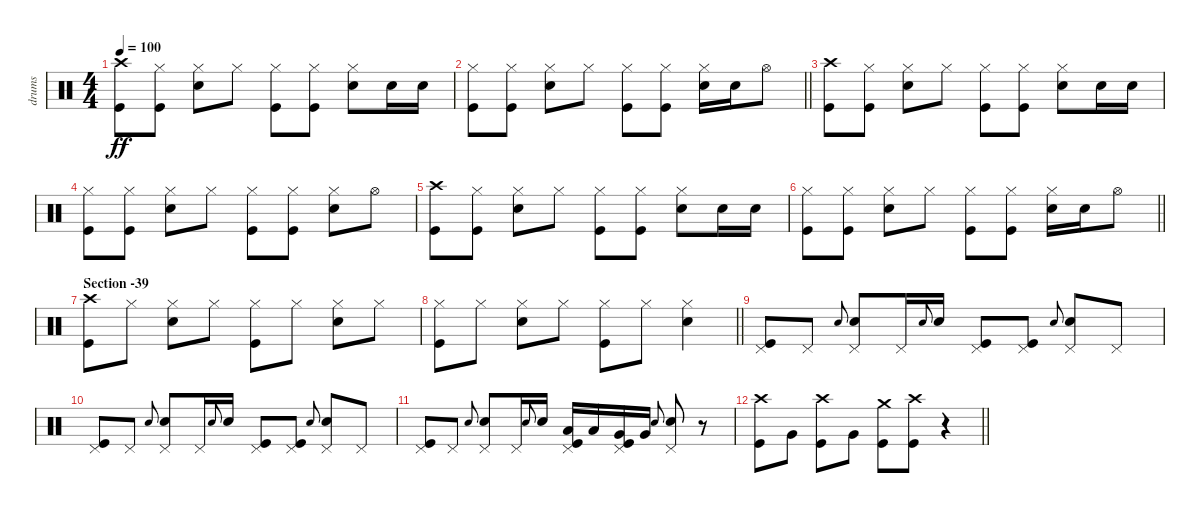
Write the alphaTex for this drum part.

\track ("drums" "drums") {instrument percussion}
\staff {score}
\articulation defaults
\ts (4 4)
\tempo 100
\clef neutral
\ks c
("Crash high (hit)" "Kick (hit)").8{dy ff} ("Hi-Hat (closed)" "Kick (hit)").8 ("Hi-Hat (closed)" "Electric Snare (hit)").8 "Hi-Hat (closed)".8 ("Hi-Hat (closed)" "Kick (hit)").8 ("Hi-Hat (closed)" "Kick (hit)").8 ("Hi-Hat (closed)" "Electric Snare (hit)").8 "Electric Snare (hit)".16 "Electric Snare (hit)".16 |
\barLineRight lightlight
("Hi-Hat (closed)" "Kick (hit)").8 ("Hi-Hat (closed)" "Kick (hit)").8 ("Hi-Hat (closed)" "Electric Snare (hit)").8 "Hi-Hat (closed)".8 ("Hi-Hat (closed)" "Kick (hit)").8 ("Hi-Hat (closed)" "Kick (hit)").8 ("Hi-Hat (closed)" "Electric Snare (hit)").16 "Electric Snare (hit)".16 "Hi-Hat (open)".8 |
("Crash high (hit)" "Kick (hit)").8 ("Hi-Hat (closed)" "Kick (hit)").8 ("Hi-Hat (closed)" "Electric Snare (hit)").8 "Hi-Hat (closed)".8 ("Hi-Hat (closed)" "Kick (hit)").8 ("Hi-Hat (closed)" "Kick (hit)").8 ("Hi-Hat (closed)" "Electric Snare (hit)").8 "Electric Snare (hit)".16 "Electric Snare (hit)".16 |
("Hi-Hat (closed)" "Kick (hit)").8 ("Hi-Hat (closed)" "Kick (hit)").8 ("Hi-Hat (closed)" "Electric Snare (hit)").8 "Hi-Hat (closed)".8 ("Hi-Hat (closed)" "Kick (hit)").8 ("Hi-Hat (closed)" "Kick (hit)").8 ("Hi-Hat (closed)" "Electric Snare (hit)").8 "Hi-Hat (open)".8 |
("Crash high (hit)" "Kick (hit)").8 ("Hi-Hat (closed)" "Kick (hit)").8 ("Hi-Hat (closed)" "Electric Snare (hit)").8 "Hi-Hat (closed)".8 ("Hi-Hat (closed)" "Kick (hit)").8 ("Hi-Hat (closed)" "Kick (hit)").8 ("Hi-Hat (closed)" "Electric Snare (hit)").8 "Electric Snare (hit)".16 "Electric Snare (hit)".16 |
\barLineRight lightlight
("Hi-Hat (closed)" "Kick (hit)").8 ("Hi-Hat (closed)" "Kick (hit)").8 ("Hi-Hat (closed)" "Electric Snare (hit)").8 "Hi-Hat (closed)".8 ("Hi-Hat (closed)" "Kick (hit)").8 ("Hi-Hat (closed)" "Kick (hit)").8 ("Hi-Hat (closed)" "Electric Snare (hit)").16 "Electric Snare (hit)".16 "Hi-Hat (open)".8 |
\section ("" "Section -39")
("Crash high (hit)" "Kick (hit)").8 "Hi-Hat (closed)".8 ("Hi-Hat (closed)" "Electric Snare (hit)").8 "Hi-Hat (closed)".8 ("Hi-Hat (closed)" "Kick (hit)").8 "Hi-Hat (closed)".8 ("Hi-Hat (closed)" "Electric Snare (hit)").8 "Hi-Hat (closed)".8 |
\barLineRight lightlight
("Hi-Hat (closed)" "Kick (hit)").8 "Hi-Hat (closed)".8 ("Hi-Hat (closed)" "Electric Snare (hit)").8 "Hi-Hat (closed)".8 ("Hi-Hat (closed)" "Kick (hit)").8 "Hi-Hat (closed)".8 ("Hi-Hat (closed)" "Electric Snare (hit)").4 |
("Pedal Hi-Hat (hit)" "Kick (hit)").8 "Pedal Hi-Hat (hit)".8 "Electric Snare (hit)".8{gr onbeat} ("Pedal Hi-Hat (hit)" "Electric Snare (hit)").8 "Pedal Hi-Hat (hit)".16 "Electric Snare (hit)".8{gr onbeat} "Electric Snare (hit)".16 ("Pedal Hi-Hat (hit)" "Kick (hit)").8 ("Pedal Hi-Hat (hit)" "Kick (hit)").8 "Electric Snare (hit)".8{gr onbeat} ("Pedal Hi-Hat (hit)" "Electric Snare (hit)").8 "Pedal Hi-Hat (hit)".8 |
("Pedal Hi-Hat (hit)" "Kick (hit)").8 "Pedal Hi-Hat (hit)".8 "Electric Snare (hit)".8{gr onbeat} ("Pedal Hi-Hat (hit)" "Electric Snare (hit)").8 "Pedal Hi-Hat (hit)".16 "Electric Snare (hit)".8{gr onbeat} "Electric Snare (hit)".16 ("Pedal Hi-Hat (hit)" "Kick (hit)").8 ("Pedal Hi-Hat (hit)" "Kick (hit)").8 "Electric Snare (hit)".8{gr onbeat} ("Pedal Hi-Hat (hit)" "Electric Snare (hit)").8 "Pedal Hi-Hat (hit)".8 |
("Pedal Hi-Hat (hit)" "Kick (hit)").8 "Pedal Hi-Hat (hit)".8 "Electric Snare (hit)".8{gr onbeat} ("Pedal Hi-Hat (hit)" "Electric Snare (hit)").8 "Pedal Hi-Hat (hit)".16 "Electric Snare (hit)".8{gr onbeat} "Electric Snare (hit)".16 ("Pedal Hi-Hat (hit)" "Low Tom (hit)" "Kick (hit)").16 "Low Tom (hit)".16 ("Pedal Hi-Hat (hit)" "Very Low Tom (hit)" "Kick (hit)").16 "Very Low Tom (hit)".16 "Electric Snare (hit)".8{gr onbeat} ("Pedal Hi-Hat (hit)" "Electric Snare (hit)").8 r.8 |
\barLineRight lightlight
("Crash high (hit)" "Kick (hit)").8 "Very Low Tom (hit)".8 ("Crash high (hit)" "Kick (hit)").8 "Very Low Tom (hit)".8 ("Crash medium (hit)" "Kick (hit)").8 ("Crash high (hit)" "Kick (hit)").8 r.4
